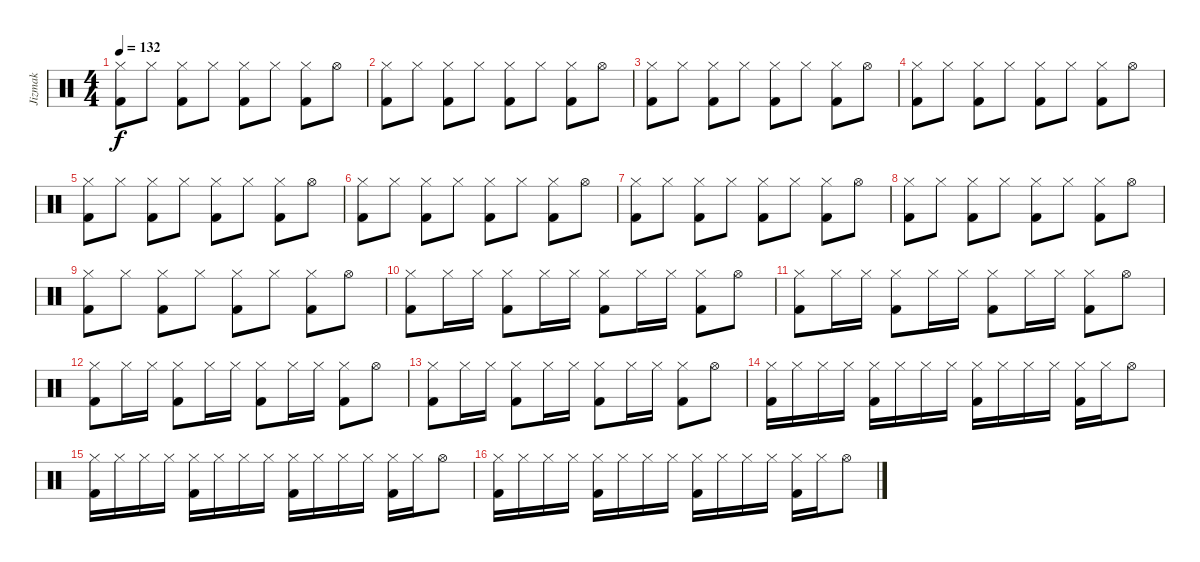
\track ("Jizmak" "Jizmak") {instrument percussion}
\staff {score}
\articulation defaults
\ts (4 4)
\tempo 132
\clef neutral
\ks c
("Hi-Hat (closed)" "Kick (hit) 2").8{dy f} "Hi-Hat (closed)".8 ("Hi-Hat (closed)" "Kick (hit) 2").8 "Hi-Hat (closed)".8 ("Hi-Hat (closed)" "Kick (hit) 2").8 "Hi-Hat (closed)".8 ("Hi-Hat (closed)" "Kick (hit) 2").8 "Hi-Hat (open)".8 |
("Hi-Hat (closed)" "Kick (hit) 2").8 "Hi-Hat (closed)".8 ("Hi-Hat (closed)" "Kick (hit) 2").8 "Hi-Hat (closed)".8 ("Hi-Hat (closed)" "Kick (hit) 2").8 "Hi-Hat (closed)".8 ("Hi-Hat (closed)" "Kick (hit) 2").8 "Hi-Hat (open)".8 |
("Hi-Hat (closed)" "Kick (hit) 2").8 "Hi-Hat (closed)".8 ("Hi-Hat (closed)" "Kick (hit) 2").8 "Hi-Hat (closed)".8 ("Hi-Hat (closed)" "Kick (hit) 2").8 "Hi-Hat (closed)".8 ("Hi-Hat (closed)" "Kick (hit) 2").8 "Hi-Hat (open)".8 |
("Hi-Hat (closed)" "Kick (hit) 2").8 "Hi-Hat (closed)".8 ("Hi-Hat (closed)" "Kick (hit) 2").8 "Hi-Hat (closed)".8 ("Hi-Hat (closed)" "Kick (hit) 2").8 "Hi-Hat (closed)".8 ("Hi-Hat (closed)" "Kick (hit) 2").8 "Hi-Hat (open)".8 |
("Hi-Hat (closed)" "Kick (hit) 2").8 "Hi-Hat (closed)".8 ("Hi-Hat (closed)" "Kick (hit) 2").8 "Hi-Hat (closed)".8 ("Hi-Hat (closed)" "Kick (hit) 2").8 "Hi-Hat (closed)".8 ("Hi-Hat (closed)" "Kick (hit) 2").8 "Hi-Hat (open)".8 |
("Hi-Hat (closed)" "Kick (hit) 2").8 "Hi-Hat (closed)".8 ("Hi-Hat (closed)" "Kick (hit) 2").8 "Hi-Hat (closed)".8 ("Hi-Hat (closed)" "Kick (hit) 2").8 "Hi-Hat (closed)".8 ("Hi-Hat (closed)" "Kick (hit) 2").8 "Hi-Hat (open)".8 |
("Hi-Hat (closed)" "Kick (hit) 2").8 "Hi-Hat (closed)".8 ("Hi-Hat (closed)" "Kick (hit) 2").8 "Hi-Hat (closed)".8 ("Hi-Hat (closed)" "Kick (hit) 2").8 "Hi-Hat (closed)".8 ("Hi-Hat (closed)" "Kick (hit) 2").8 "Hi-Hat (open)".8 |
("Hi-Hat (closed)" "Kick (hit) 2").8 "Hi-Hat (closed)".8 ("Hi-Hat (closed)" "Kick (hit) 2").8 "Hi-Hat (closed)".8 ("Hi-Hat (closed)" "Kick (hit) 2").8 "Hi-Hat (closed)".8 ("Hi-Hat (closed)" "Kick (hit) 2").8 "Hi-Hat (open)".8 |
("Hi-Hat (closed)" "Kick (hit) 2").8 "Hi-Hat (closed)".8 ("Hi-Hat (closed)" "Kick (hit) 2").8 "Hi-Hat (closed)".8 ("Hi-Hat (closed)" "Kick (hit) 2").8 "Hi-Hat (closed)".8 ("Hi-Hat (closed)" "Kick (hit) 2").8 "Hi-Hat (open)".8 |
("Hi-Hat (closed)" "Kick (hit) 2").8 "Hi-Hat (closed)".16 "Hi-Hat (closed)".16 ("Hi-Hat (closed)" "Kick (hit) 2").8 "Hi-Hat (closed)".16 "Hi-Hat (closed)".16 ("Hi-Hat (closed)" "Kick (hit) 2").8 "Hi-Hat (closed)".16 "Hi-Hat (closed)".16 ("Hi-Hat (closed)" "Kick (hit) 2").8 "Hi-Hat (open)".8 |
("Hi-Hat (closed)" "Kick (hit) 2").8 "Hi-Hat (closed)".16 "Hi-Hat (closed)".16 ("Hi-Hat (closed)" "Kick (hit) 2").8 "Hi-Hat (closed)".16 "Hi-Hat (closed)".16 ("Hi-Hat (closed)" "Kick (hit) 2").8 "Hi-Hat (closed)".16 "Hi-Hat (closed)".16 ("Hi-Hat (closed)" "Kick (hit) 2").8 "Hi-Hat (open)".8 |
("Hi-Hat (closed)" "Kick (hit) 2").8 "Hi-Hat (closed)".16 "Hi-Hat (closed)".16 ("Hi-Hat (closed)" "Kick (hit) 2").8 "Hi-Hat (closed)".16 "Hi-Hat (closed)".16 ("Hi-Hat (closed)" "Kick (hit) 2").8 "Hi-Hat (closed)".16 "Hi-Hat (closed)".16 ("Hi-Hat (closed)" "Kick (hit) 2").8 "Hi-Hat (open)".8 |
("Hi-Hat (closed)" "Kick (hit) 2").8 "Hi-Hat (closed)".16 "Hi-Hat (closed)".16 ("Hi-Hat (closed)" "Kick (hit) 2").8 "Hi-Hat (closed)".16 "Hi-Hat (closed)".16 ("Hi-Hat (closed)" "Kick (hit) 2").8 "Hi-Hat (closed)".16 "Hi-Hat (closed)".16 ("Hi-Hat (closed)" "Kick (hit) 2").8 "Hi-Hat (open)".8 |
("Hi-Hat (closed)" "Kick (hit) 2").16 "Hi-Hat (closed)".16 "Hi-Hat (closed)".16 "Hi-Hat (closed)".16 ("Hi-Hat (closed)" "Kick (hit) 2").16 "Hi-Hat (closed)".16 "Hi-Hat (closed)".16 "Hi-Hat (closed)".16 ("Hi-Hat (closed)" "Kick (hit) 2").16 "Hi-Hat (closed)".16 "Hi-Hat (closed)".16 "Hi-Hat (closed)".16 ("Hi-Hat (closed)" "Kick (hit) 2").16 "Hi-Hat (closed)".16 "Hi-Hat (open)".8 |
("Hi-Hat (closed)" "Kick (hit) 2").16 "Hi-Hat (closed)".16 "Hi-Hat (closed)".16 "Hi-Hat (closed)".16 ("Hi-Hat (closed)" "Kick (hit) 2").16 "Hi-Hat (closed)".16 "Hi-Hat (closed)".16 "Hi-Hat (closed)".16 ("Hi-Hat (closed)" "Kick (hit) 2").16 "Hi-Hat (closed)".16 "Hi-Hat (closed)".16 "Hi-Hat (closed)".16 ("Hi-Hat (closed)" "Kick (hit) 2").16 "Hi-Hat (closed)".16 "Hi-Hat (open)".8 |
("Hi-Hat (closed)" "Kick (hit) 2").16 "Hi-Hat (closed)".16 "Hi-Hat (closed)".16 "Hi-Hat (closed)".16 ("Hi-Hat (closed)" "Kick (hit) 2").16 "Hi-Hat (closed)".16 "Hi-Hat (closed)".16 "Hi-Hat (closed)".16 ("Hi-Hat (closed)" "Kick (hit) 2").16 "Hi-Hat (closed)".16 "Hi-Hat (closed)".16 "Hi-Hat (closed)".16 ("Hi-Hat (closed)" "Kick (hit) 2").16 "Hi-Hat (closed)".16 "Hi-Hat (open)".8
